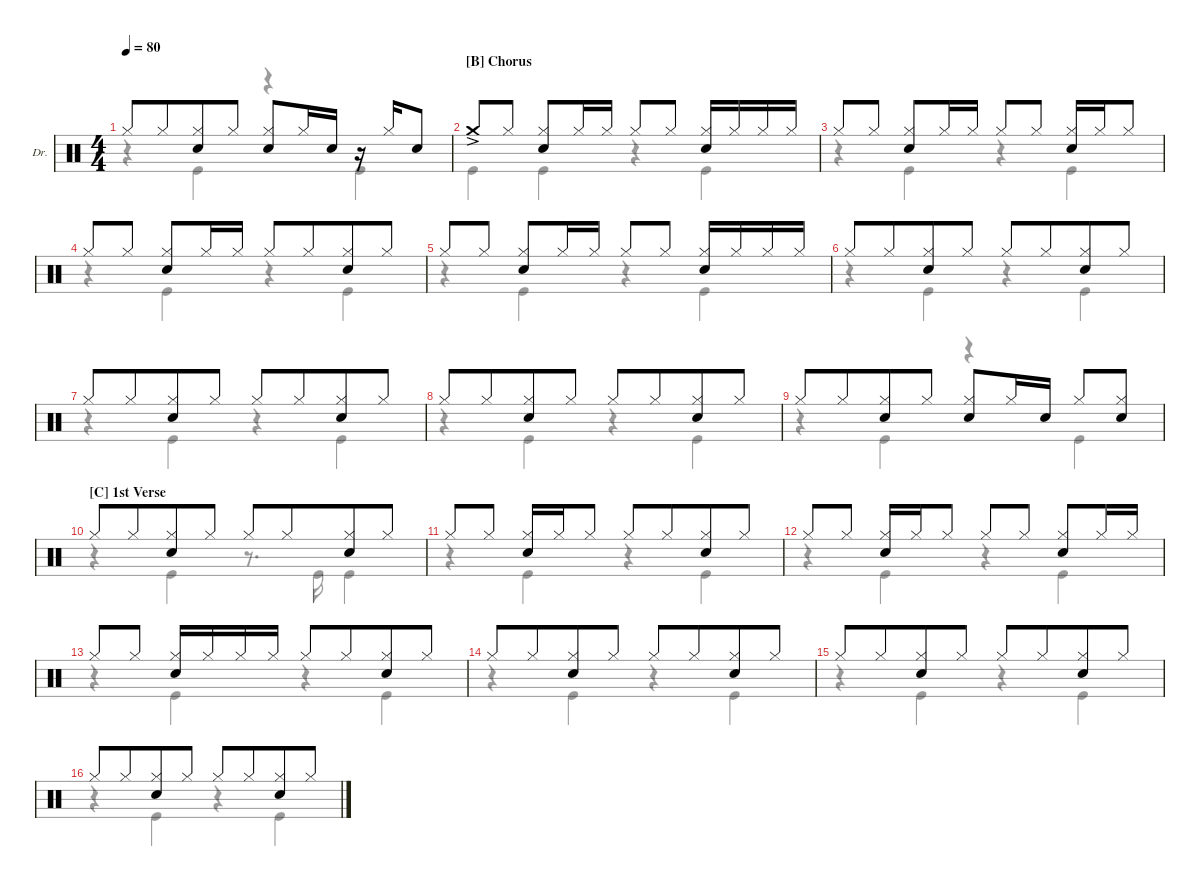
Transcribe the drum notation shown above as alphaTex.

\defaultSystemsLayout 4
\hideDynamics
\bracketExtendMode groupsimilarinstruments
\firstSystemTrackNameOrientation horizontal
\otherSystemsTrackNameOrientation horizontal
\track ("Drums" "Dr.") {multiBarRest instrument percussion}
\staff {score}
\articulation defaults
\voice
\ts (4 4)
\tempo 80
\clef neutral
\ks c "Hi-Hat (closed)".8{dy mf} "Hi-Hat (closed)".8{beam merge}
("Hi-Hat (closed)" "Snare (hit) 2").8 "Hi-Hat (closed)".8 ("Hi-Hat (closed)" "Snare (hit) 2").8 "Hi-Hat (closed)".16 "Snare (hit) 2".16 r.16 "Hi-Hat (closed)".16 "Snare (hit) 2".8 |
\section ("B" "Chorus")
"Crash medium (hit)"{ac}.8 "Hi-Hat (closed)".8 ("Hi-Hat (closed)" "Snare (hit) 2").8 "Hi-Hat (closed)".16 "Hi-Hat (closed)".16 "Hi-Hat (closed)".8 "Hi-Hat (closed)".8 ("Hi-Hat (closed)" "Snare (hit) 2").16 "Hi-Hat (closed)".16 "Hi-Hat (closed)".16 "Hi-Hat (closed)".16 |
"Hi-Hat (closed)".8 "Hi-Hat (closed)".8 ("Hi-Hat (closed)" "Snare (hit) 2").8 "Hi-Hat (closed)".16 "Hi-Hat (closed)".16 "Hi-Hat (closed)".8 "Hi-Hat (closed)".8 ("Hi-Hat (closed)" "Snare (hit) 2").16 "Hi-Hat (closed)".16 "Hi-Hat (closed)".8 |
"Hi-Hat (closed)".8 "Hi-Hat (closed)".8 ("Hi-Hat (closed)" "Snare (hit) 2").8 "Hi-Hat (closed)".16 "Hi-Hat (closed)".16 "Hi-Hat (closed)".8 "Hi-Hat (closed)".8{beam merge} ("Hi-Hat (closed)" "Snare (hit) 2").8 "Hi-Hat (closed)".8 |
"Hi-Hat (closed)".8 "Hi-Hat (closed)".8 ("Hi-Hat (closed)" "Snare (hit) 2").8 "Hi-Hat (closed)".16 "Hi-Hat (closed)".16 "Hi-Hat (closed)".8 "Hi-Hat (closed)".8 ("Hi-Hat (closed)" "Snare (hit) 2").16 "Hi-Hat (closed)".16 "Hi-Hat (closed)".16 "Hi-Hat (closed)".16 |
"Hi-Hat (closed)".8 "Hi-Hat (closed)".8{beam merge} ("Hi-Hat (closed)" "Snare (hit) 2").8 "Hi-Hat (closed)".8 "Hi-Hat (closed)".8 "Hi-Hat (closed)".8{beam merge} ("Hi-Hat (closed)" "Snare (hit) 2").8 "Hi-Hat (closed)".8 |
"Hi-Hat (closed)".8 "Hi-Hat (closed)".8{beam merge} ("Hi-Hat (closed)" "Snare (hit) 2").8 "Hi-Hat (closed)".8 "Hi-Hat (closed)".8 "Hi-Hat (closed)".8{beam merge} ("Hi-Hat (closed)" "Snare (hit) 2").8 "Hi-Hat (closed)".8 |
"Hi-Hat (closed)".8 "Hi-Hat (closed)".8{beam merge} ("Hi-Hat (closed)" "Snare (hit) 2").8 "Hi-Hat (closed)".8 "Hi-Hat (closed)".8 "Hi-Hat (closed)".8{beam merge} ("Hi-Hat (closed)" "Snare (hit) 2").8 "Hi-Hat (closed)".8 |
"Hi-Hat (closed)".8 "Hi-Hat (closed)".8{beam merge} ("Hi-Hat (closed)" "Snare (hit) 2").8 "Hi-Hat (closed)".8 ("Hi-Hat (closed)" "Snare (hit) 2").8 "Hi-Hat (closed)".16 "Snare (hit) 2".16 "Hi-Hat (closed)".8 ("Hi-Hat (closed)" "Snare (hit) 2").8 |
\section ("C" "1st Verse")
"Hi-Hat (closed)".8 "Hi-Hat (closed)".8{beam merge} ("Hi-Hat (closed)" "Snare (hit) 2").8 "Hi-Hat (closed)".8 "Hi-Hat (closed)".8 "Hi-Hat (closed)".8{beam merge} ("Hi-Hat (closed)" "Snare (hit) 2").8 "Hi-Hat (closed)".8 |
"Hi-Hat (closed)".8 "Hi-Hat (closed)".8 ("Hi-Hat (closed)" "Snare (hit) 2").16 "Hi-Hat (closed)".16 "Hi-Hat (closed)".8 "Hi-Hat (closed)".8 "Hi-Hat (closed)".8{beam merge} ("Hi-Hat (closed)" "Snare (hit) 2").8 "Hi-Hat (closed)".8 |
"Hi-Hat (closed)".8 "Hi-Hat (closed)".8 ("Hi-Hat (closed)" "Snare (hit) 2").16 "Hi-Hat (closed)".16 "Hi-Hat (closed)".8 "Hi-Hat (closed)".8 "Hi-Hat (closed)".8 ("Hi-Hat (closed)" "Snare (hit) 2").8 "Hi-Hat (closed)".16 "Hi-Hat (closed)".16 |
"Hi-Hat (closed)".8 "Hi-Hat (closed)".8 ("Hi-Hat (closed)" "Snare (hit) 2").16 "Hi-Hat (closed)".16 "Hi-Hat (closed)".16 "Hi-Hat (closed)".16 "Hi-Hat (closed)".8 "Hi-Hat (closed)".8{beam merge} ("Hi-Hat (closed)" "Snare (hit) 2").8 "Hi-Hat (closed)".8 |
"Hi-Hat (closed)".8 "Hi-Hat (closed)".8{beam merge} ("Hi-Hat (closed)" "Snare (hit) 2").8 "Hi-Hat (closed)".8 "Hi-Hat (closed)".8 "Hi-Hat (closed)".8{beam merge} ("Hi-Hat (closed)" "Snare (hit) 2").8 "Hi-Hat (closed)".8 |
"Hi-Hat (closed)".8 "Hi-Hat (closed)".8{beam merge} ("Hi-Hat (closed)" "Snare (hit) 2").8 "Hi-Hat (closed)".8 "Hi-Hat (closed)".8 "Hi-Hat (closed)".8{beam merge} ("Hi-Hat (closed)" "Snare (hit) 2").8 "Hi-Hat (closed)".8 |
"Hi-Hat (closed)".8 "Hi-Hat (closed)".8{beam merge} ("Hi-Hat (closed)" "Snare (hit) 2").8 "Hi-Hat (closed)".8 "Hi-Hat (closed)".8 "Hi-Hat (closed)".8{beam merge} ("Hi-Hat (closed)" "Snare (hit) 2").8 "Hi-Hat (closed)".8
\voice
\clef neutral
\ottava regular
\simile none
\ks c
r.4{dy mf} "Kick (hit)".4 r.4 "Kick (hit)".4 |
"Kick (hit)".4 "Kick (hit)".4 r.4 "Kick (hit)".4 |
r.4 "Kick (hit)".4 r.4 "Kick (hit)".4 |
r.4 "Kick (hit)".4 r.4 "Kick (hit)".4 |
r.4 "Kick (hit)".4 r.4 "Kick (hit)".4 |
r.4 "Kick (hit)".4 r.4 "Kick (hit)".4 |
r.4 "Kick (hit)".4 r.4 "Kick (hit)".4 |
r.4 "Kick (hit)".4 r.4 "Kick (hit)".4 |
r.4 "Kick (hit)".4 r.4 "Kick (hit)".4 |
r.4 "Kick (hit)".4 r.8{d} "Kick (hit)".16 "Kick (hit)".4 |
r.4 "Kick (hit)".4 r.4 "Kick (hit)".4 |
r.4 "Kick (hit)".4 r.4 "Kick (hit)".4 |
r.4 "Kick (hit)".4 r.4 "Kick (hit)".4 |
r.4 "Kick (hit)".4 r.4 "Kick (hit)".4 |
r.4 "Kick (hit)".4 r.4 "Kick (hit)".4 |
r.4 "Kick (hit)".4 r.4 "Kick (hit)".4
